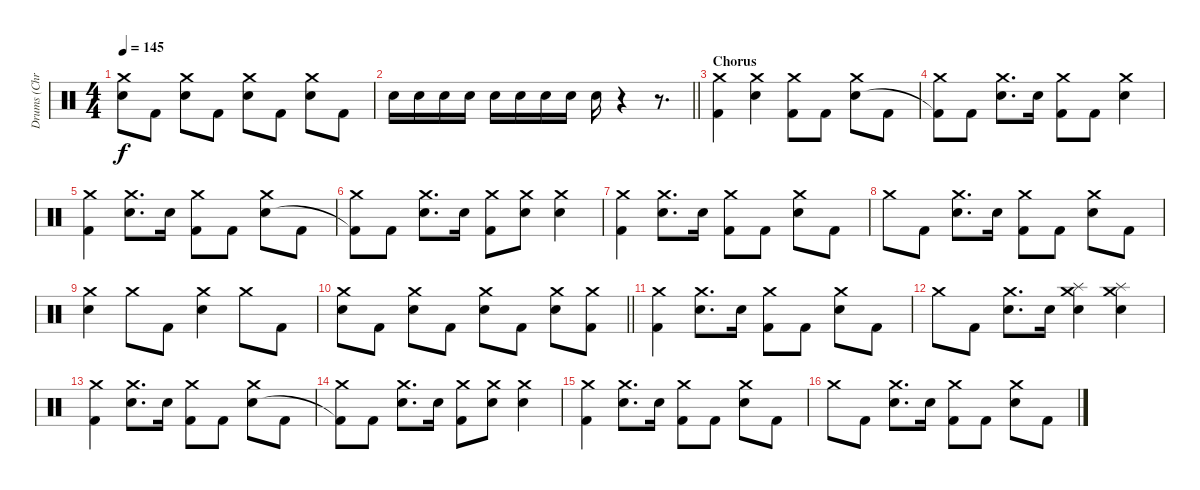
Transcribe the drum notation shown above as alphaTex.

\track ("Drums (Chris)" "Drums (Chr") {instrument percussion}
\staff {score}
\articulation defaults
\ts (4 4)
\tempo 145
\clef neutral
\ks c
("Crash medium (hit)" "Electric Snare (hit)").8{dy f} "Kick (hit) 2".8 ("Crash medium (hit)" "Electric Snare (hit)").8 "Kick (hit) 2".8 ("Crash medium (hit)" "Electric Snare (hit)").8 "Kick (hit) 2".8 ("Crash medium (hit)" "Electric Snare (hit)").8 "Kick (hit) 2".8 |
\barLineRight lightlight "Electric Snare (hit)".16 "Electric Snare (hit)".16 "Electric Snare (hit)".16 "Electric Snare (hit)".16 "Electric Snare (hit)".16 "Electric Snare (hit)".16 "Electric Snare (hit)".16 "Electric Snare (hit)".16 "Electric Snare (hit)".16
r.4 r.8{d} |
\section ("" "Chorus")
("Crash medium (hit)" "Kick (hit) 2").4 ("Crash medium (hit)" "Electric Snare (hit)").4 ("Crash medium (hit)" "Kick (hit) 2").8 "Kick (hit) 2".8 ("Crash medium (hit)" "Electric Snare (hit)").8 "Kick (hit) 2".8 |
("Crash medium (hit)" "Kick (hit) 2"{t}).8 "Kick (hit) 2".8 ("Crash medium (hit)" "Electric Snare (hit)").8{d} "Electric Snare (hit)".16 ("Crash medium (hit)" "Kick (hit) 2").8 "Kick (hit) 2".8 ("Crash medium (hit)" "Electric Snare (hit)").4 |
("Crash medium (hit)" "Kick (hit) 2").4 ("Crash medium (hit)" "Electric Snare (hit)").8{d} "Electric Snare (hit)".16 ("Crash medium (hit)" "Kick (hit) 2").8 "Kick (hit) 2".8 ("Crash medium (hit)" "Electric Snare (hit)").8 "Kick (hit) 2".8 |
("Crash medium (hit)" "Kick (hit) 2"{t}).8 "Kick (hit) 2".8 ("Crash medium (hit)" "Electric Snare (hit)").8{d} "Electric Snare (hit)".16 ("Crash medium (hit)" "Kick (hit) 2").8 ("Crash medium (hit)" "Electric Snare (hit)").8 ("Crash medium (hit)" "Electric Snare (hit)").4 |
("Crash medium (hit)" "Kick (hit) 2").4 ("Crash medium (hit)" "Electric Snare (hit)").8{d} "Electric Snare (hit)".16 ("Crash medium (hit)" "Kick (hit) 2").8 "Kick (hit) 2".8 ("Crash medium (hit)" "Electric Snare (hit)").8 "Kick (hit) 2".8 |
"Crash medium (hit)".8 "Kick (hit) 2".8 ("Crash medium (hit)" "Electric Snare (hit)").8{d} "Electric Snare (hit)".16 ("Crash medium (hit)" "Kick (hit) 2").8 "Kick (hit) 2".8 ("Crash medium (hit)" "Electric Snare (hit)").8 "Kick (hit) 2".8 |
("Crash medium (hit)" "Electric Snare (hit)").4 "Crash medium (hit)".8 "Kick (hit) 2".8 ("Crash medium (hit)" "Electric Snare (hit)").4 "Crash medium (hit)".8 "Kick (hit) 2".8 |
\barLineRight lightlight
("Crash medium (hit)" "Electric Snare (hit)").8 "Kick (hit) 2".8 ("Crash medium (hit)" "Electric Snare (hit)").8 "Kick (hit) 2".8 ("Crash medium (hit)" "Electric Snare (hit)").8 "Kick (hit) 2".8 ("Crash medium (hit)" "Electric Snare (hit)").8 ("Crash medium (hit)" "Kick (hit) 2").8 |
\section ("" "")
("Crash medium (hit)" "Kick (hit) 2").4 ("Crash medium (hit)" "Electric Snare (hit)").8{d} "Electric Snare (hit)".16 ("Crash medium (hit)" "Kick (hit) 2").8 "Kick (hit) 2".8 ("Crash medium (hit)" "Electric Snare (hit)").8 "Kick (hit) 2".8 |
"Crash medium (hit)".8 "Kick (hit) 2".8 ("Crash medium (hit)" "Electric Snare (hit)").8{d} "Electric Snare (hit)".16 ("Crash medium (hit)" "Splash (hit)" "Electric Snare (hit)").4 ("Crash medium (hit)" "Splash (hit)" "Electric Snare (hit)").4 |
("Crash medium (hit)" "Kick (hit) 2").4 ("Crash medium (hit)" "Electric Snare (hit)").8{d} "Electric Snare (hit)".16 ("Crash medium (hit)" "Kick (hit) 2").8 "Kick (hit) 2".8 ("Crash medium (hit)" "Electric Snare (hit)").8 "Kick (hit) 2".8 |
("Crash medium (hit)" "Kick (hit) 2"{t}).8 "Kick (hit) 2".8 ("Crash medium (hit)" "Electric Snare (hit)").8{d} "Electric Snare (hit)".16 ("Crash medium (hit)" "Kick (hit) 2").8 ("Crash medium (hit)" "Electric Snare (hit)").8 ("Crash medium (hit)" "Electric Snare (hit)").4 |
("Crash medium (hit)" "Kick (hit) 2").4 ("Crash medium (hit)" "Electric Snare (hit)").8{d} "Electric Snare (hit)".16 ("Crash medium (hit)" "Kick (hit) 2").8 "Kick (hit) 2".8 ("Crash medium (hit)" "Electric Snare (hit)").8 "Kick (hit) 2".8 |
"Crash medium (hit)".8 "Kick (hit) 2".8 ("Crash medium (hit)" "Electric Snare (hit)").8{d} "Electric Snare (hit)".16 ("Crash medium (hit)" "Kick (hit) 2").8 "Kick (hit) 2".8 ("Crash medium (hit)" "Electric Snare (hit)").8 "Kick (hit) 2".8
